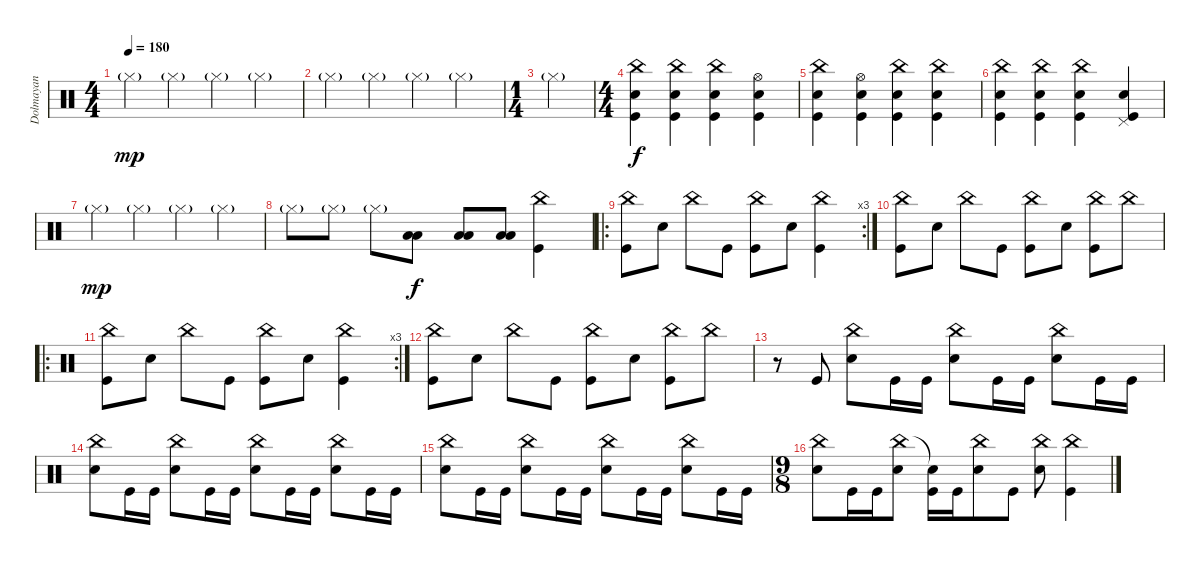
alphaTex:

\track ("Dolmayan" "Dolmayan") {instrument percussion}
\staff {score}
\articulation defaults
\ts (4 4)
\tempo 180
\clef neutral
\ks c "Hi-Hat (closed)"{g}.4{dy mp} "Hi-Hat (closed)"{g}.4 "Hi-Hat (closed)"{g}.4 "Hi-Hat (closed)"{g}.4
|
"Hi-Hat (closed)"{g}.4 "Hi-Hat (closed)"{g}.4 "Hi-Hat (closed)"{g}.4 "Hi-Hat (closed)"{g}.4 |
\ts (1 4)
"Hi-Hat (closed)"{g}.4 |
\ts (4 4)
("China (hit)" "Snare (hit) 2" "Kick (hit)").4{dy f} ("China (hit)" "Snare (hit) 2" "Kick (hit)").4 ("China (hit)" "Snare (hit) 2" "Kick (hit)").4 ("Hi-Hat (open)" "Snare (hit) 2" "Kick (hit)").4 |
("China (hit)" "Snare (hit) 2" "Kick (hit)").4 ("Hi-Hat (open)" "Snare (hit) 2" "Kick (hit)").4 ("China (hit)" "Snare (hit) 2" "Kick (hit)").4 ("China (hit)" "Snare (hit) 2" "Kick (hit)").4 |
("China (hit)" "Snare (hit) 2" "Kick (hit)").4 ("China (hit)" "Snare (hit) 2" "Kick (hit)").4 ("China (hit)" "Snare (hit) 2" "Kick (hit)").4 ("Pedal Hi-Hat (hit)" "Snare (hit) 2" "Kick (hit)").4 |
"Hi-Hat (closed)"{g}.4{dy mp} "Hi-Hat (closed)"{g}.4 "Hi-Hat (closed)"{g}.4 "Hi-Hat (closed)"{g}.4 |
"Hi-Hat (closed)"{g}.8 "Hi-Hat (closed)"{g}.8 "Hi-Hat (closed)"{g}.8 ("Low Tom (hit)" "Low Floor Tom (hit)").8{dy f} ("Low Tom (hit)" "Low Floor Tom (hit)").8 ("Low Tom (hit)" "Low Floor Tom (hit)").8 ("China (hit)" "Kick (hit)").4 |
\ro
\rc 3
("China (hit)" "Kick (hit)").8 "Snare (hit) 2".8 "China (hit)".8 "Kick (hit)".8 ("China (hit)" "Kick (hit)").8 "Snare (hit) 2".8 ("China (hit)" "Kick (hit)").4 |
("China (hit)" "Kick (hit)").8 "Snare (hit) 2".8 "China (hit)".8 "Kick (hit)".8 ("China (hit)" "Kick (hit)").8 "Snare (hit) 2".8 ("China (hit)" "Kick (hit)").8 "China (hit)".8 |
\ro
\rc 3
("China (hit)" "Kick (hit)").8 "Snare (hit) 2".8 "China (hit)".8 "Kick (hit)".8 ("China (hit)" "Kick (hit)").8 "Snare (hit) 2".8 ("China (hit)" "Kick (hit)").4 |
("China (hit)" "Kick (hit)").8 "Snare (hit) 2".8 "China (hit)".8 "Kick (hit)".8 ("China (hit)" "Kick (hit)").8 "Snare (hit) 2".8 ("China (hit)" "Kick (hit)").8 "China (hit)".8 |
r.8 "Kick (hit)".8 ("China (hit)" "Snare (hit) 2").8 "Kick (hit)".16 "Kick (hit)".16 ("China (hit)" "Snare (hit) 2").8 "Kick (hit)".16 "Kick (hit)".16 ("China (hit)" "Snare (hit) 2").8 "Kick (hit)".16 "Kick (hit)".16 |
("China (hit)" "Snare (hit) 2").8 "Kick (hit)".16 "Kick (hit)".16 ("China (hit)" "Snare (hit) 2").8 "Kick (hit)".16 "Kick (hit)".16 ("China (hit)" "Snare (hit) 2").8 "Kick (hit)".16 "Kick (hit)".16 ("China (hit)" "Snare (hit) 2").8 "Kick (hit)".16 "Kick (hit)".16 |
("China (hit)" "Snare (hit) 2").8 "Kick (hit)".16 "Kick (hit)".16 ("China (hit)" "Snare (hit) 2").8 "Kick (hit)".16 "Kick (hit)".16 ("China (hit)" "Snare (hit) 2").8 "Kick (hit)".16 "Kick (hit)".16 ("China (hit)" "Snare (hit) 2").8 "Kick (hit)".16 "Kick (hit)".16 |
\ts (9 8)
("China (hit)" "Snare (hit) 2").8 "Kick (hit)".16 "Kick (hit)".16 ("China (hit)" "Snare (hit) 2").8 ("Snare (hit)"{t} "Kick (hit)").16 "Kick (hit)".16 ("China (hit)" "Snare (hit) 2").8 "Kick (hit)".8 ("China (hit)" "Snare (hit) 2").8 ("China (hit)" "Kick (hit)").4
